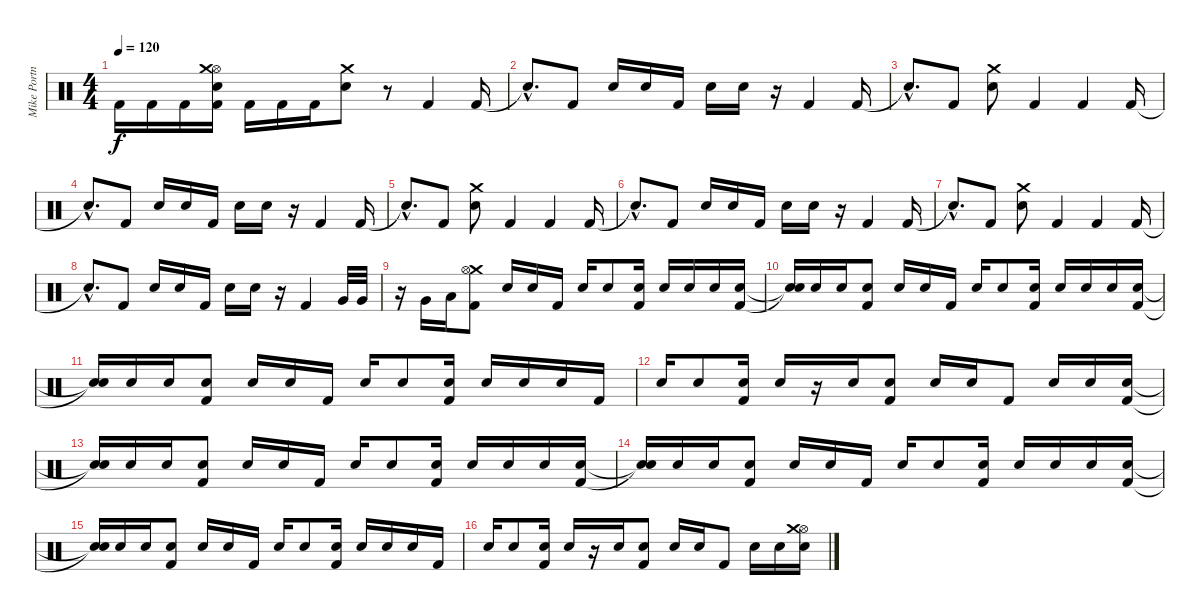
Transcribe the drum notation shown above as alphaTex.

\track ("Mike Portnoy - Batterie" "Mike Portn") {instrument percussion}
\staff {score}
\articulation defaults
\ts (4 4)
\tempo 120
\clef neutral
\ks c "Kick (hit) 2".16{dy f} "Kick (hit) 2".16 "Kick (hit) 2".16
("Electric Snare (hit)" "Hi-Hat (open)" "Crash medium (hit)" "Kick (hit) 2").16 "Kick (hit) 2".16 "Kick (hit) 2".16 "Kick (hit) 2".16 ("Crash medium (hit)" "Electric Snare (hit)").8{volume 10} r.8 "Kick (hit) 2".4 "Kick (hit) 2".16 |
"Snare (hit)"{hac t}.8{d} "Kick (hit) 2".8 "Electric Snare (hit)".16 "Electric Snare (hit)".16 "Kick (hit) 2".16 "Electric Snare (hit)".16 "Electric Snare (hit)".16 r.16 "Kick (hit) 2".4 "Kick (hit) 2".16 |
"Snare (hit)"{hac t}.8{d} "Kick (hit) 2".8 ("Crash medium (hit)" "Electric Snare (hit)").8 "Kick (hit) 2".4 "Kick (hit) 2".4 "Kick (hit) 2".16 |
"Snare (hit)"{hac t}.8{d} "Kick (hit) 2".8 "Electric Snare (hit)".16 "Electric Snare (hit)".16 "Kick (hit) 2".16 "Electric Snare (hit)".16 "Electric Snare (hit)".16 r.16 "Kick (hit) 2".4 "Kick (hit) 2".16 |
"Snare (hit)"{hac t}.8{d} "Kick (hit) 2".8 ("Crash medium (hit)" "Electric Snare (hit)").8 "Kick (hit) 2".4 "Kick (hit) 2".4 "Kick (hit) 2".16 |
"Snare (hit)"{hac t}.8{d} "Kick (hit) 2".8 "Electric Snare (hit)".16 "Electric Snare (hit)".16 "Kick (hit) 2".16 "Electric Snare (hit)".16 "Electric Snare (hit)".16 r.16 "Kick (hit) 2".4 "Kick (hit) 2".16 |
"Snare (hit)"{hac t}.8{d} "Kick (hit) 2".8 ("Crash medium (hit)" "Electric Snare (hit)").8 "Kick (hit) 2".4 "Kick (hit) 2".4 "Kick (hit) 2".16 |
"Snare (hit)"{hac t}.8{d} "Kick (hit) 2".8 "Electric Snare (hit)".16 "Electric Snare (hit)".16 "Kick (hit) 2".16 "Electric Snare (hit)".16 "Electric Snare (hit)".16 r.16 "Kick (hit) 2".4 "Very Low Tom (hit)".32 "Very Low Tom (hit)".32 |
r.16 "Very Low Tom (hit)".16 "Low Floor Tom (hit)".16 ("Kick (hit) 2" "Crash medium (hit)" "Hi-Hat (open)").8 "Electric Snare (hit)".16 "Electric Snare (hit)".16 "Kick (hit) 2".16 "Electric Snare (hit)".16 "Electric Snare (hit)".8 ("Kick (hit) 2" "Electric Snare (hit)").16 "Electric Snare (hit)".16 "Electric Snare (hit)".16 "Electric Snare (hit)".16 ("Electric Snare (hit)" "Kick (hit) 2").16 |
("Snare (hit)"{t} "Snare (hit)"{t}).16 "Electric Snare (hit)".16 "Electric Snare (hit)".16 ("Electric Snare (hit)" "Kick (hit) 2").8 "Electric Snare (hit)".16 "Electric Snare (hit)".16 "Kick (hit) 2".16 "Electric Snare (hit)".16 "Electric Snare (hit)".8 ("Electric Snare (hit)" "Kick (hit) 2").16 "Electric Snare (hit)".16 "Electric Snare (hit)".16 "Electric Snare (hit)".16 ("Electric Snare (hit)" "Kick (hit) 2").16 |
("Snare (hit)"{t} "Snare (hit)"{t}).16 "Electric Snare (hit)".16 "Electric Snare (hit)".16 ("Electric Snare (hit)" "Kick (hit) 2").8 "Electric Snare (hit)".16 "Electric Snare (hit)".16 "Kick (hit) 2".16 "Electric Snare (hit)".16 "Electric Snare (hit)".8 ("Electric Snare (hit)" "Kick (hit) 2").16 "Electric Snare (hit)".16 "Electric Snare (hit)".16 "Electric Snare (hit)".16 "Kick (hit) 2".16 |
"Electric Snare (hit)".16 "Electric Snare (hit)".8 ("Electric Snare (hit)" "Kick (hit) 2").16 "Electric Snare (hit)".16 r.16 "Electric Snare (hit)".16 ("Electric Snare (hit)" "Kick (hit) 2").8 "Electric Snare (hit)".16 "Electric Snare (hit)".16 "Kick (hit) 2".8 "Electric Snare (hit)".16 "Electric Snare (hit)".16 ("Electric Snare (hit)" "Kick (hit) 2").16 |
("Snare (hit)"{t} "Snare (hit)"{t}).16 "Electric Snare (hit)".16 "Electric Snare (hit)".16 ("Electric Snare (hit)" "Kick (hit) 2").8 "Electric Snare (hit)".16 "Electric Snare (hit)".16 "Kick (hit) 2".16 "Electric Snare (hit)".16 "Electric Snare (hit)".8 ("Electric Snare (hit)" "Kick (hit) 2").16 "Electric Snare (hit)".16 "Electric Snare (hit)".16 "Electric Snare (hit)".16 ("Electric Snare (hit)" "Kick (hit) 2").16 |
("Snare (hit)"{t} "Snare (hit)"{t}).16 "Electric Snare (hit)".16 "Electric Snare (hit)".16 ("Electric Snare (hit)" "Kick (hit) 2").8 "Electric Snare (hit)".16 "Electric Snare (hit)".16 "Kick (hit) 2".16 "Electric Snare (hit)".16 "Electric Snare (hit)".8 ("Electric Snare (hit)" "Kick (hit) 2").16 "Electric Snare (hit)".16 "Electric Snare (hit)".16 "Electric Snare (hit)".16 ("Electric Snare (hit)" "Kick (hit) 2").16 |
("Snare (hit)"{t} "Snare (hit)"{t}).16 "Electric Snare (hit)".16 "Electric Snare (hit)".16 ("Electric Snare (hit)" "Kick (hit) 2").8 "Electric Snare (hit)".16 "Electric Snare (hit)".16 "Kick (hit) 2".16 "Electric Snare (hit)".16 "Electric Snare (hit)".8 ("Electric Snare (hit)" "Kick (hit) 2").16 "Electric Snare (hit)".16 "Electric Snare (hit)".16 "Electric Snare (hit)".16 "Kick (hit) 2".16 |
"Electric Snare (hit)".16 "Electric Snare (hit)".8 ("Electric Snare (hit)" "Kick (hit) 2").16 "Electric Snare (hit)".16 r.16 "Electric Snare (hit)".16 ("Electric Snare (hit)" "Kick (hit) 2").8 "Electric Snare (hit)".16 "Electric Snare (hit)".16 "Kick (hit) 2".8 "Electric Snare (hit)".16 "Electric Snare (hit)".16 ("Hi-Hat (open)" "Crash medium (hit)" "Electric Snare (hit)").16
